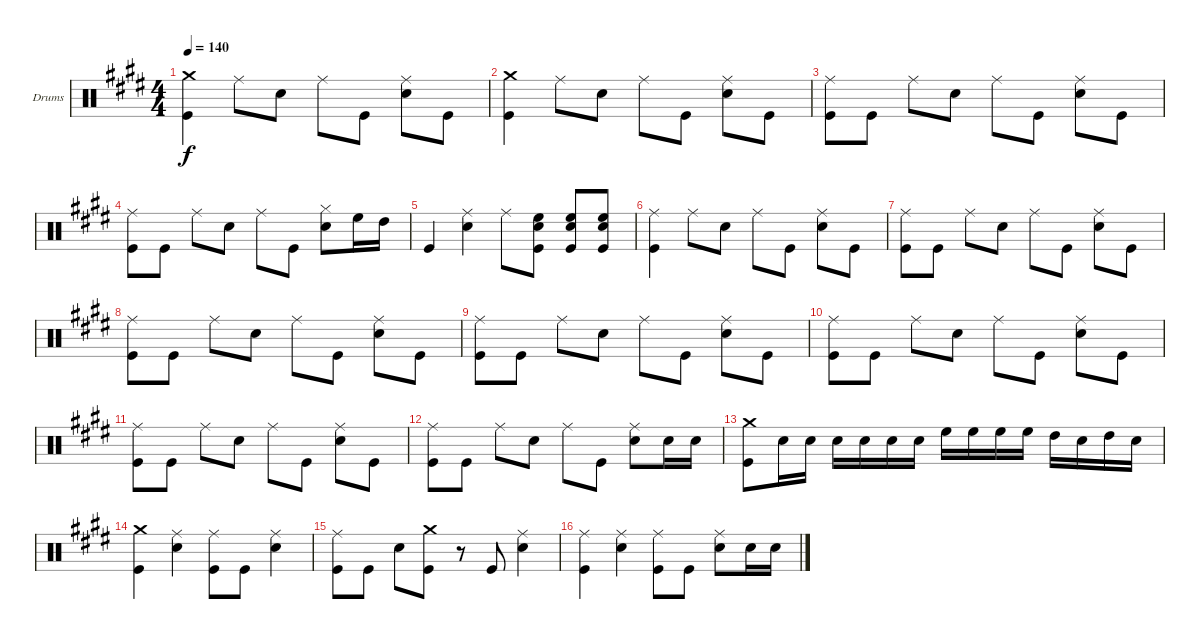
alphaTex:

\bracketExtendMode groupsimilarinstruments
\firstSystemTrackNameOrientation horizontal
\otherSystemsTrackNameOrientation horizontal
\track ("Drumkit" "Drums") {instrument percussion}
\staff {score}
\articulation defaults
\ts (4 4)
\tempo 140
\clef neutral
\ks e
("Crash medium (hit)" "Kick (hit)").4{dy f} "Ride (middle)".8 "Snare (hit) 2".8 "Ride (middle)".8 "Kick (hit)".8 ("Ride (middle)" "Snare (hit) 2").8 "Kick (hit)".8 |
("Crash medium (hit)" "Kick (hit)").4 "Ride (middle)".8 "Snare (hit) 2".8 "Ride (middle)".8 "Kick (hit)".8 ("Ride (middle)" "Snare (hit) 2").8 "Kick (hit)".8 |
("Ride (middle)" "Kick (hit)").8 "Kick (hit)".8 "Ride (middle)".8 "Snare (hit) 2".8 "Ride (middle)".8 "Kick (hit)".8 ("Ride (middle)" "Snare (hit) 2").8 "Kick (hit)".8 |
("Ride (middle)" "Kick (hit)").8 "Kick (hit)".8 "Ride (middle)".8 "Snare (hit) 2".8 "Ride (middle)".8 "Kick (hit)".8 ("Snare (hit) 2" "Hi-Hat (closed)").8 "High Floor Tom (hit)".16 "High Tom (hit)".16 |
"Kick (hit)".4 ("Ride (middle)" "Snare (hit) 2").4 "Ride (middle)".8 ("High Floor Tom (hit)" "Snare (hit) 2" "Kick (hit)").8 ("High Floor Tom (hit)" "Snare (hit) 2" "Kick (hit)").8 ("High Floor Tom (hit)" "Snare (hit) 2" "Kick (hit)").8 |
("Ride (middle)" "Kick (hit)").4 "Ride (middle)".8 "Snare (hit) 2".8 "Ride (middle)".8 "Kick (hit)".8 ("Ride (middle)" "Snare (hit) 2").8 "Kick (hit)".8 |
("Ride (middle)" "Kick (hit)").8 "Kick (hit)".8 "Ride (middle)".8 "Snare (hit) 2".8 "Ride (middle)".8 "Kick (hit)".8 ("Ride (middle)" "Snare (hit) 2").8 "Kick (hit)".8 |
("Ride (middle)" "Kick (hit)").8 "Kick (hit)".8 "Ride (middle)".8 "Snare (hit) 2".8 "Ride (middle)".8 "Kick (hit)".8 ("Ride (middle)" "Snare (hit) 2").8 "Kick (hit)".8 |
("Ride (middle)" "Kick (hit)").8 "Kick (hit)".8 "Ride (middle)".8 "Snare (hit) 2".8 "Ride (middle)".8 "Kick (hit)".8 ("Ride (middle)" "Snare (hit) 2").8 "Kick (hit)".8 |
("Ride (middle)" "Kick (hit)").8 "Kick (hit)".8 "Ride (middle)".8 "Snare (hit) 2".8 "Ride (middle)".8 "Kick (hit)".8 ("Ride (middle)" "Snare (hit) 2").8 "Kick (hit)".8 |
("Ride (middle)" "Kick (hit)").8 "Kick (hit)".8 "Ride (middle)".8 "Snare (hit) 2".8 "Ride (middle)".8 "Kick (hit)".8 ("Ride (middle)" "Snare (hit) 2").8 "Kick (hit)".8 |
("Ride (middle)" "Kick (hit)").8 "Kick (hit)".8 "Ride (middle)".8 "Snare (hit) 2".8 "Ride (middle)".8 "Kick (hit)".8 ("Ride (middle)" "Snare (hit) 2").8 "Snare (hit) 2".16 "Snare (hit) 2".16 |
("Crash medium (hit)" "Kick (hit)").8 "Snare (hit) 2".16 "Snare (hit) 2".16 "Snare (hit) 2".16 "Snare (hit) 2".16 "Snare (hit) 2".16 "Snare (hit) 2".16 "High Floor Tom (hit)".16 "High Floor Tom (hit)".16 "High Floor Tom (hit)".16 "High Floor Tom (hit)".16 "High Tom (hit)".16 "Snare (hit) 2".16 "High Tom (hit)".16 "Snare (hit) 2".16 |
("Crash medium (hit)" "Kick (hit)").4 ("Ride (middle)" "Snare (hit) 2").4 ("Ride (middle)" "Kick (hit)").8 "Kick (hit)".8 ("Ride (middle)" "Snare (hit) 2").4 |
("Ride (middle)" "Kick (hit)").8 "Kick (hit)".8 "Snare (hit) 2".8 ("Crash medium (hit)" "Kick (hit)").8 r.8 "Kick (hit)".8 ("Ride (middle)" "Snare (hit) 2").4 |
("Ride (middle)" "Kick (hit)").4 ("Ride (middle)" "Snare (hit) 2").4 ("Ride (middle)" "Kick (hit)").8 "Kick (hit)".8 ("Ride (middle)" "Snare (hit) 2").8 "Snare (hit) 2".16 "Snare (hit) 2".16
